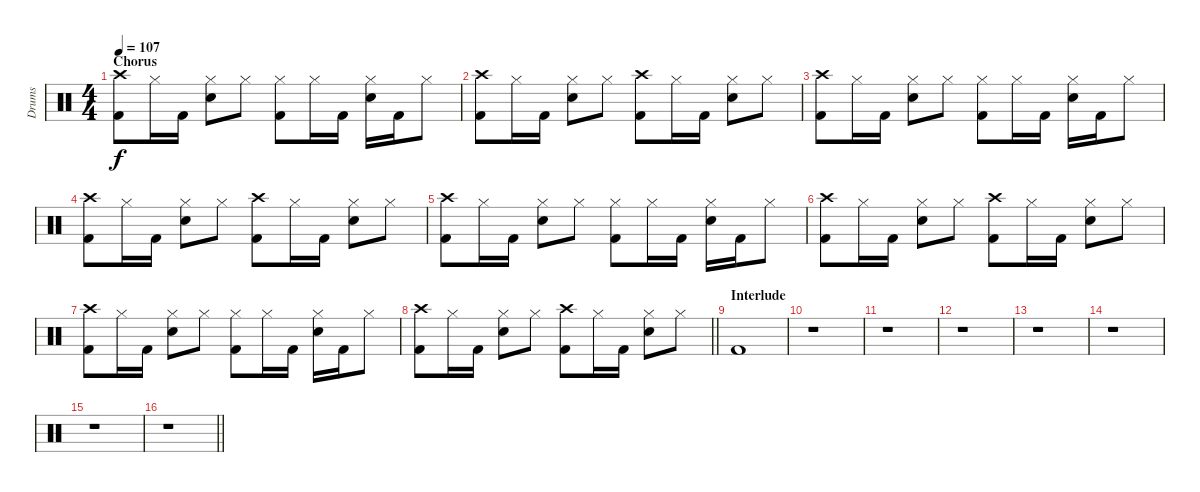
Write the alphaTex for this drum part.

\track ("Drums " "Drums ") {instrument percussion}
\staff {score}
\articulation defaults
\ts (4 4)
\section ("" "Chorus")
\tempo 107
\clef neutral
\ks c
("Crash high (hit)" "Kick (hit) 2").8{dy f} "Hi-Hat (closed)".16 "Kick (hit) 2".16 ("Hi-Hat (closed)" "Electric Snare (hit)").8 "Hi-Hat (closed)".8 ("Hi-Hat (closed)" "Kick (hit) 2").8 "Hi-Hat (closed)".16 "Kick (hit) 2".16 ("Hi-Hat (closed)" "Electric Snare (hit)").16 "Kick (hit) 2".16 "Hi-Hat (closed)".8 |
("Crash high (hit)" "Kick (hit) 2").8 "Hi-Hat (closed)".16 "Kick (hit) 2".16 ("Hi-Hat (closed)" "Electric Snare (hit)").8 "Hi-Hat (closed)".8 ("Crash high (hit)" "Kick (hit) 2").8 "Hi-Hat (closed)".16 "Kick (hit) 2".16 ("Hi-Hat (closed)" "Electric Snare (hit)").8 "Hi-Hat (closed)".8 |
("Crash high (hit)" "Kick (hit) 2").8 "Hi-Hat (closed)".16 "Kick (hit) 2".16 ("Hi-Hat (closed)" "Electric Snare (hit)").8 "Hi-Hat (closed)".8 ("Hi-Hat (closed)" "Kick (hit) 2").8 "Hi-Hat (closed)".16 "Kick (hit) 2".16 ("Hi-Hat (closed)" "Electric Snare (hit)").16 "Kick (hit) 2".16 "Hi-Hat (closed)".8 |
("Crash high (hit)" "Kick (hit) 2").8 "Hi-Hat (closed)".16 "Kick (hit) 2".16 ("Hi-Hat (closed)" "Electric Snare (hit)").8 "Hi-Hat (closed)".8 ("Crash high (hit)" "Kick (hit) 2").8 "Hi-Hat (closed)".16 "Kick (hit) 2".16 ("Hi-Hat (closed)" "Electric Snare (hit)").8 "Hi-Hat (closed)".8 |
("Crash high (hit)" "Kick (hit) 2").8 "Hi-Hat (closed)".16 "Kick (hit) 2".16 ("Hi-Hat (closed)" "Electric Snare (hit)").8 "Hi-Hat (closed)".8 ("Hi-Hat (closed)" "Kick (hit) 2").8 "Hi-Hat (closed)".16 "Kick (hit) 2".16 ("Hi-Hat (closed)" "Electric Snare (hit)").16 "Kick (hit) 2".16 "Hi-Hat (closed)".8 |
("Crash high (hit)" "Kick (hit) 2").8 "Hi-Hat (closed)".16 "Kick (hit) 2".16 ("Hi-Hat (closed)" "Electric Snare (hit)").8 "Hi-Hat (closed)".8 ("Crash high (hit)" "Kick (hit) 2").8 "Hi-Hat (closed)".16 "Kick (hit) 2".16 ("Hi-Hat (closed)" "Electric Snare (hit)").8 "Hi-Hat (closed)".8 |
("Crash high (hit)" "Kick (hit) 2").8 "Hi-Hat (closed)".16 "Kick (hit) 2".16 ("Hi-Hat (closed)" "Electric Snare (hit)").8 "Hi-Hat (closed)".8 ("Hi-Hat (closed)" "Kick (hit) 2").8 "Hi-Hat (closed)".16 "Kick (hit) 2".16 ("Hi-Hat (closed)" "Electric Snare (hit)").16 "Kick (hit) 2".16 "Hi-Hat (closed)".8 |
\barLineRight lightlight
("Crash high (hit)" "Kick (hit) 2").8 "Hi-Hat (closed)".16 "Kick (hit) 2".16 ("Hi-Hat (closed)" "Electric Snare (hit)").8 "Hi-Hat (closed)".8 ("Crash high (hit)" "Kick (hit) 2").8 "Hi-Hat (closed)".16 "Kick (hit) 2".16 ("Hi-Hat (closed)" "Electric Snare (hit)").8 "Hi-Hat (closed)".8 |
\section ("" "Interlude")
"Kick (hit) 2".1 |
r.1 |
r.1 |
r.1 |
r.1 |
r.1 |
r.1 |
\barLineRight lightlight
r.1
